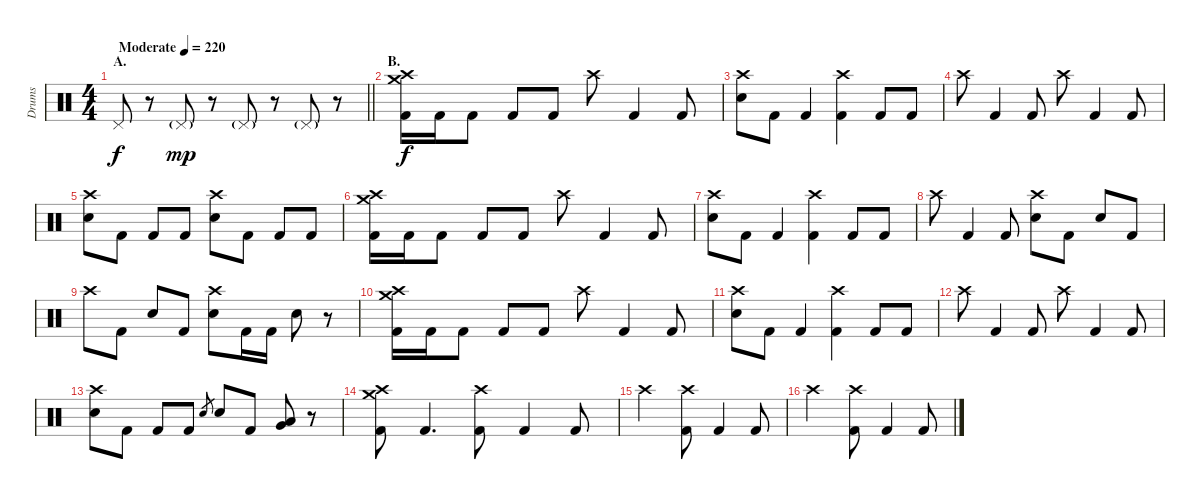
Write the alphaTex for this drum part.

\track ("Drums" "Drums") {instrument percussion}
\staff {score}
\articulation defaults
\ts (4 4)
\section ("" "A.")
\tempo (220 "Moderate")
\clef neutral
\barLineRight lightlight
\ks c "Pedal Hi-Hat (hit)".8{dy f}
r.8 "Pedal Hi-Hat (hit)"{g}.8{dy mp} r.8 "Pedal Hi-Hat (hit)"{g}.8 r.8 "Pedal Hi-Hat (hit)"{g}.8 r.8 |
\section ("" "B.")
("Crash medium (hit)" "Crash high (hit)" "Kick (hit) 2").16{dy f} "Kick (hit) 2".16 "Kick (hit) 2".8 "Kick (hit) 2".8 "Kick (hit) 2".8 "Crash high (hit)".8 "Kick (hit) 2".4 "Kick (hit) 2".8 |
("Crash high (hit)" "Electric Snare (hit)").8 "Kick (hit) 2".8 "Kick (hit) 2".4 ("Crash high (hit)" "Kick (hit) 2").4 "Kick (hit) 2".8 "Kick (hit) 2".8 |
"Crash high (hit)".8 "Kick (hit) 2".4 "Kick (hit) 2".8 "Crash high (hit)".8 "Kick (hit) 2".4 "Kick (hit) 2".8 |
("Crash high (hit)" "Electric Snare (hit)").8 "Kick (hit) 2".8 "Kick (hit) 2".8 "Kick (hit) 2".8 ("Crash high (hit)" "Electric Snare (hit)").8 "Kick (hit) 2".8 "Kick (hit) 2".8 "Kick (hit) 2".8 |
("Crash medium (hit)" "Crash high (hit)" "Kick (hit) 2").16 "Kick (hit) 2".16 "Kick (hit) 2".8 "Kick (hit) 2".8 "Kick (hit) 2".8 "Crash high (hit)".8 "Kick (hit) 2".4 "Kick (hit) 2".8 |
("Crash high (hit)" "Electric Snare (hit)").8 "Kick (hit) 2".8 "Kick (hit) 2".4 ("Crash high (hit)" "Kick (hit) 2").4 "Kick (hit) 2".8 "Kick (hit) 2".8 |
"Crash high (hit)".8 "Kick (hit) 2".4 "Kick (hit) 2".8 ("Crash high (hit)" "Electric Snare (hit)").8 "Kick (hit) 2".8 "Electric Snare (hit)".8 "Kick (hit) 2".8 |
"Crash high (hit)".8 "Kick (hit) 2".8 "Electric Snare (hit)".8 "Kick (hit) 2".8 ("Crash high (hit)" "Electric Snare (hit)").8 "Kick (hit) 2".16 "Kick (hit) 2".16 "Electric Snare (hit)".8 r.8 |
("Crash medium (hit)" "Crash high (hit)" "Kick (hit) 2").16 "Kick (hit) 2".16 "Kick (hit) 2".8 "Kick (hit) 2".8 "Kick (hit) 2".8 "Crash high (hit)".8 "Kick (hit) 2".4 "Kick (hit) 2".8 |
("Crash high (hit)" "Electric Snare (hit)").8 "Kick (hit) 2".8 "Kick (hit) 2".4 ("Crash high (hit)" "Kick (hit) 2").4 "Kick (hit) 2".8 "Kick (hit) 2".8 |
"Crash high (hit)".8 "Kick (hit) 2".4 "Kick (hit) 2".8 "Crash high (hit)".8 "Kick (hit) 2".4 "Kick (hit) 2".8 |
("Crash high (hit)" "Electric Snare (hit)").8 "Kick (hit) 2".8 "Kick (hit) 2".8 "Kick (hit) 2".8 "Electric Snare (hit)".8{gr} "Electric Snare (hit)".8 "Kick (hit) 2".8 ("Very Low Tom (hit)" "Low Floor Tom (hit)").8{bu 120} r.8 |
("Crash medium (hit)" "Crash high (hit)" "Kick (hit) 2").8 "Kick (hit) 2".4{d} ("Crash high (hit)" "Kick (hit) 2").8 "Kick (hit) 2".4 "Kick (hit) 2".8 |
"Crash high (hit)".2 ("Crash high (hit)" "Kick (hit) 2").8 "Kick (hit) 2".4 "Kick (hit) 2".8 |
"Crash high (hit)".2 ("Crash high (hit)" "Kick (hit) 2").8 "Kick (hit) 2".4 "Kick (hit) 2".8
